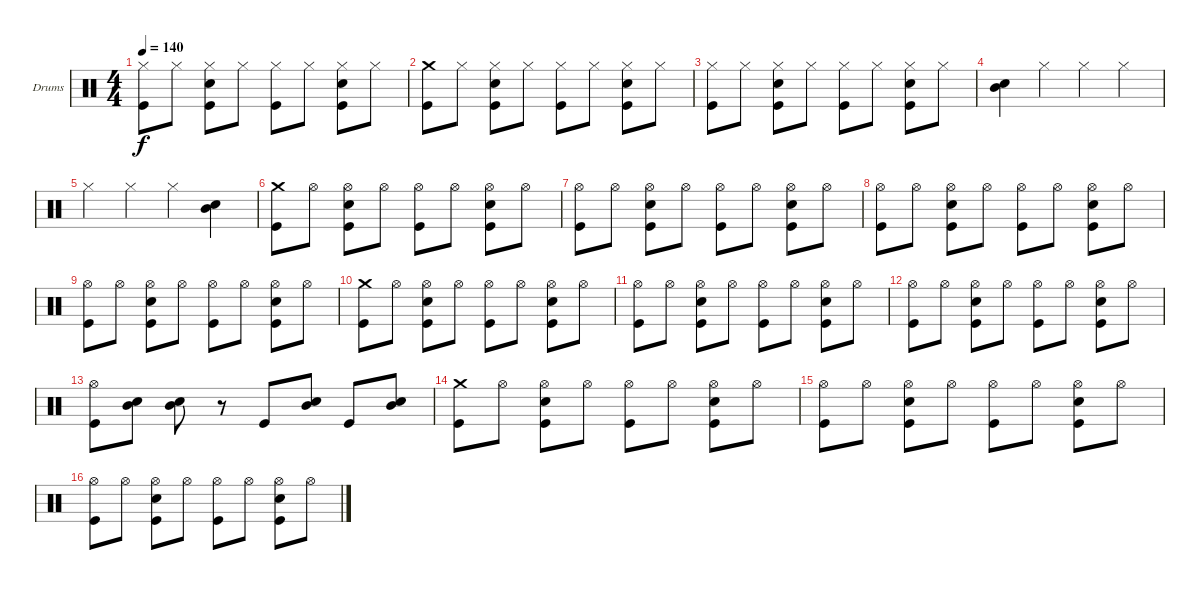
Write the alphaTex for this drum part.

\bracketExtendMode groupsimilarinstruments
\firstSystemTrackNameOrientation horizontal
\otherSystemsTrackNameOrientation horizontal
\track ("Drumkit" "Drums") {instrument percussion}
\staff {score}
\articulation defaults
\ts (4 4)
\tempo 140
\clef neutral
\ks c
("Hi-Hat (closed)" "Kick (hit)").8{dy f} "Hi-Hat (closed)".8 ("Hi-Hat (closed)" "Snare (hit) 2" "Kick (hit)").8 "Hi-Hat (closed)".8 ("Hi-Hat (closed)" "Kick (hit)").8 "Hi-Hat (closed)".8 ("Hi-Hat (closed)" "Snare (hit) 2" "Kick (hit)").8 "Hi-Hat (closed)".8 |
("Crash medium (hit)" "Kick (hit)").8 "Hi-Hat (closed)".8 ("Hi-Hat (closed)" "Snare (hit) 2" "Kick (hit)").8 "Hi-Hat (closed)".8 ("Hi-Hat (closed)" "Kick (hit)").8 "Hi-Hat (closed)".8 ("Hi-Hat (closed)" "Snare (hit) 2" "Kick (hit)").8 "Hi-Hat (closed)".8 |
("Hi-Hat (closed)" "Kick (hit)").8 "Hi-Hat (closed)".8 ("Hi-Hat (closed)" "Snare (hit) 2" "Kick (hit)").8 "Hi-Hat (closed)".8 ("Hi-Hat (closed)" "Kick (hit)").8 "Hi-Hat (closed)".8 ("Hi-Hat (closed)" "Snare (hit) 2" "Kick (hit)").8 "Hi-Hat (closed)".8 |
("Mid Tom (hit)" "Snare (hit) 2").4 "Hi-Hat (closed)".4 "Hi-Hat (closed)".4 "Hi-Hat (closed)".4 |
"Hi-Hat (closed)".4 "Hi-Hat (closed)".4 "Hi-Hat (closed)".4 ("Mid Tom (hit)" "Snare (hit) 2").4 |
("Crash medium (hit)" "Kick (hit)").8 "Hi-Hat (open)".8 ("Hi-Hat (open)" "Snare (hit) 2" "Kick (hit)").8 "Hi-Hat (open)".8 ("Hi-Hat (open)" "Kick (hit)").8 "Hi-Hat (open)".8 ("Hi-Hat (open)" "Snare (hit) 2" "Kick (hit)").8 "Hi-Hat (open)".8 |
("Hi-Hat (open)" "Kick (hit)").8 "Hi-Hat (open)".8 ("Hi-Hat (open)" "Snare (hit) 2" "Kick (hit)").8 "Hi-Hat (open)".8 ("Hi-Hat (open)" "Kick (hit)").8 "Hi-Hat (open)".8 ("Hi-Hat (open)" "Snare (hit) 2" "Kick (hit)").8 "Hi-Hat (open)".8 |
("Hi-Hat (open)" "Kick (hit)").8 "Hi-Hat (open)".8 ("Hi-Hat (open)" "Snare (hit) 2" "Kick (hit)").8 "Hi-Hat (open)".8 ("Hi-Hat (open)" "Kick (hit)").8 "Hi-Hat (open)".8 ("Hi-Hat (open)" "Snare (hit) 2" "Kick (hit)").8 "Hi-Hat (open)".8 |
("Hi-Hat (open)" "Kick (hit)").8 "Hi-Hat (open)".8 ("Hi-Hat (open)" "Snare (hit) 2" "Kick (hit)").8 "Hi-Hat (open)".8 ("Hi-Hat (open)" "Kick (hit)").8 "Hi-Hat (open)".8 ("Hi-Hat (open)" "Snare (hit) 2" "Kick (hit)").8 "Hi-Hat (open)".8 |
("Crash medium (hit)" "Kick (hit)").8 "Hi-Hat (open)".8 ("Hi-Hat (open)" "Snare (hit) 2" "Kick (hit)").8 "Hi-Hat (open)".8 ("Hi-Hat (open)" "Kick (hit)").8 "Hi-Hat (open)".8 ("Hi-Hat (open)" "Snare (hit) 2" "Kick (hit)").8 "Hi-Hat (open)".8 |
("Hi-Hat (open)" "Kick (hit)").8 "Hi-Hat (open)".8 ("Hi-Hat (open)" "Snare (hit) 2" "Kick (hit)").8 "Hi-Hat (open)".8 ("Hi-Hat (open)" "Kick (hit)").8 "Hi-Hat (open)".8 ("Hi-Hat (open)" "Snare (hit) 2" "Kick (hit)").8 "Hi-Hat (open)".8 |
("Hi-Hat (open)" "Kick (hit)").8 "Hi-Hat (open)".8 ("Hi-Hat (open)" "Snare (hit) 2" "Kick (hit)").8 "Hi-Hat (open)".8 ("Hi-Hat (open)" "Kick (hit)").8 "Hi-Hat (open)".8 ("Hi-Hat (open)" "Snare (hit) 2" "Kick (hit)").8 "Hi-Hat (open)".8 |
("Hi-Hat (open)" "Kick (hit)").8 ("Mid Tom (hit)" "Snare (hit) 2").8 ("Mid Tom (hit)" "Snare (hit) 2").8 r.8 "Kick (hit)".8 ("Mid Tom (hit)" "Snare (hit) 2").8 "Kick (hit)".8 ("Mid Tom (hit)" "Snare (hit) 2").8 |
("Crash medium (hit)" "Kick (hit)").8 "Hi-Hat (open)".8 ("Hi-Hat (open)" "Snare (hit) 2" "Kick (hit)").8 "Hi-Hat (open)".8 ("Hi-Hat (open)" "Kick (hit)").8 "Hi-Hat (open)".8 ("Hi-Hat (open)" "Snare (hit) 2" "Kick (hit)").8 "Hi-Hat (open)".8 |
("Hi-Hat (open)" "Kick (hit)").8 "Hi-Hat (open)".8 ("Hi-Hat (open)" "Snare (hit) 2" "Kick (hit)").8 "Hi-Hat (open)".8 ("Hi-Hat (open)" "Kick (hit)").8 "Hi-Hat (open)".8 ("Hi-Hat (open)" "Snare (hit) 2" "Kick (hit)").8 "Hi-Hat (open)".8 |
("Hi-Hat (open)" "Kick (hit)").8 "Hi-Hat (open)".8 ("Hi-Hat (open)" "Snare (hit) 2" "Kick (hit)").8 "Hi-Hat (open)".8 ("Hi-Hat (open)" "Kick (hit)").8 "Hi-Hat (open)".8 ("Hi-Hat (open)" "Snare (hit) 2" "Kick (hit)").8 "Hi-Hat (open)".8
